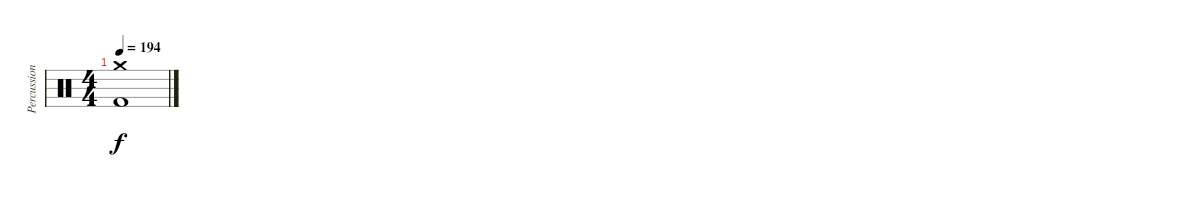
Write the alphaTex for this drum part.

\track ("Percussions" "Percussion") {instrument percussion}
\staff {score}
\articulation defaults
\ts (4 4)
\tempo 194
\clef neutral
\ks c
("Crash medium (hit)" "Kick (hit) 2").1{dy f}
